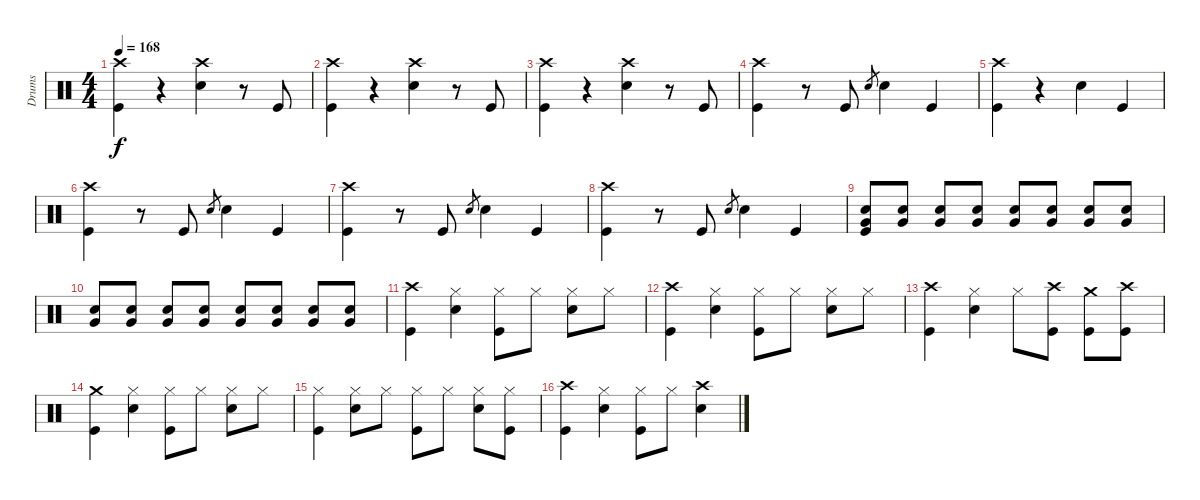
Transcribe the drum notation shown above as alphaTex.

\track ("Drums" "Drums") {instrument percussion}
\staff {score}
\articulation defaults
\ts (4 4)
\tempo 168
\clef neutral
\ks c
("Crash high (hit)" "Kick (hit)").4{dy f} r.4 ("Crash high (hit)" "Electric Snare (hit)").4 r.8 "Kick (hit)".8 |
("Crash high (hit)" "Kick (hit)").4 r.4 ("Crash high (hit)" "Electric Snare (hit)").4 r.8 "Kick (hit)".8 |
("Crash high (hit)" "Kick (hit)").4 r.4 ("Crash high (hit)" "Electric Snare (hit)").4 r.8 "Kick (hit)".8 |
("Crash high (hit)" "Kick (hit)").4 r.8 "Kick (hit)".8 "Electric Snare (hit)".8{gr} "Electric Snare (hit)".4 "Kick (hit)".4 |
("Crash high (hit)" "Kick (hit)").4 r.4 "Electric Snare (hit)".4 "Kick (hit)".4 |
("Crash high (hit)" "Kick (hit)").4 r.8 "Kick (hit)".8 "Electric Snare (hit)".8{gr} "Electric Snare (hit)".4 "Kick (hit)".4 |
("Crash high (hit)" "Kick (hit)").4 r.8 "Kick (hit)".8 "Electric Snare (hit)".8{gr} "Electric Snare (hit)".4 "Kick (hit)".4 |
("Crash high (hit)" "Kick (hit)").4 r.8 "Kick (hit)".8 "Electric Snare (hit)".8{gr} "Electric Snare (hit)".4 "Kick (hit)".4 |
("Electric Snare (hit)" "Very Low Tom (hit)" "Kick (hit)").8 ("Electric Snare (hit)" "Very Low Tom (hit)").8 ("Electric Snare (hit)" "Very Low Tom (hit)").8 ("Electric Snare (hit)" "Very Low Tom (hit)").8 ("Electric Snare (hit)" "Very Low Tom (hit)").8 ("Electric Snare (hit)" "Very Low Tom (hit)").8 ("Electric Snare (hit)" "Very Low Tom (hit)").8 ("Electric Snare (hit)" "Very Low Tom (hit)").8 |
("Electric Snare (hit)" "Very Low Tom (hit)").8 ("Electric Snare (hit)" "Very Low Tom (hit)").8 ("Electric Snare (hit)" "Very Low Tom (hit)").8 ("Electric Snare (hit)" "Very Low Tom (hit)").8 ("Electric Snare (hit)" "Very Low Tom (hit)").8 ("Electric Snare (hit)" "Very Low Tom (hit)").8 ("Electric Snare (hit)" "Very Low Tom (hit)").8 ("Electric Snare (hit)" "Very Low Tom (hit)").8 |
("Crash high (hit)" "Kick (hit)").4 ("Hi-Hat (closed)" "Electric Snare (hit)").4 ("Hi-Hat (closed)" "Kick (hit)").8 "Hi-Hat (closed)".8 ("Hi-Hat (closed)" "Electric Snare (hit)").8 "Hi-Hat (closed)".8 |
("Crash high (hit)" "Kick (hit)").4 ("Hi-Hat (closed)" "Electric Snare (hit)").4 ("Hi-Hat (closed)" "Kick (hit)").8 "Hi-Hat (closed)".8 ("Hi-Hat (closed)" "Electric Snare (hit)").8 "Hi-Hat (closed)".8 |
("Crash high (hit)" "Kick (hit)").4 ("Hi-Hat (closed)" "Electric Snare (hit)").4 "Hi-Hat (closed)".8 ("Crash high (hit)" "Kick (hit)").8 ("Crash medium (hit)" "Kick (hit)").8 ("Crash high (hit)" "Kick (hit)").8 |
("Crash medium (hit)" "Kick (hit)").4 ("Hi-Hat (closed)" "Electric Snare (hit)").4 ("Hi-Hat (closed)" "Kick (hit)").8 "Hi-Hat (closed)".8 ("Hi-Hat (closed)" "Electric Snare (hit)").8 "Hi-Hat (closed)".8 |
("Hi-Hat (closed)" "Kick (hit)").4 ("Hi-Hat (closed)" "Electric Snare (hit)").8 "Hi-Hat (closed)".8 ("Hi-Hat (closed)" "Kick (hit)").8 "Hi-Hat (closed)".8 ("Hi-Hat (closed)" "Electric Snare (hit)").8 ("Hi-Hat (closed)" "Kick (hit)").8 |
("Crash high (hit)" "Kick (hit)").4 ("Hi-Hat (closed)" "Electric Snare (hit)").4 ("Hi-Hat (closed)" "Kick (hit)").8 "Hi-Hat (closed)".8 ("Crash high (hit)" "Electric Snare (hit)").4
